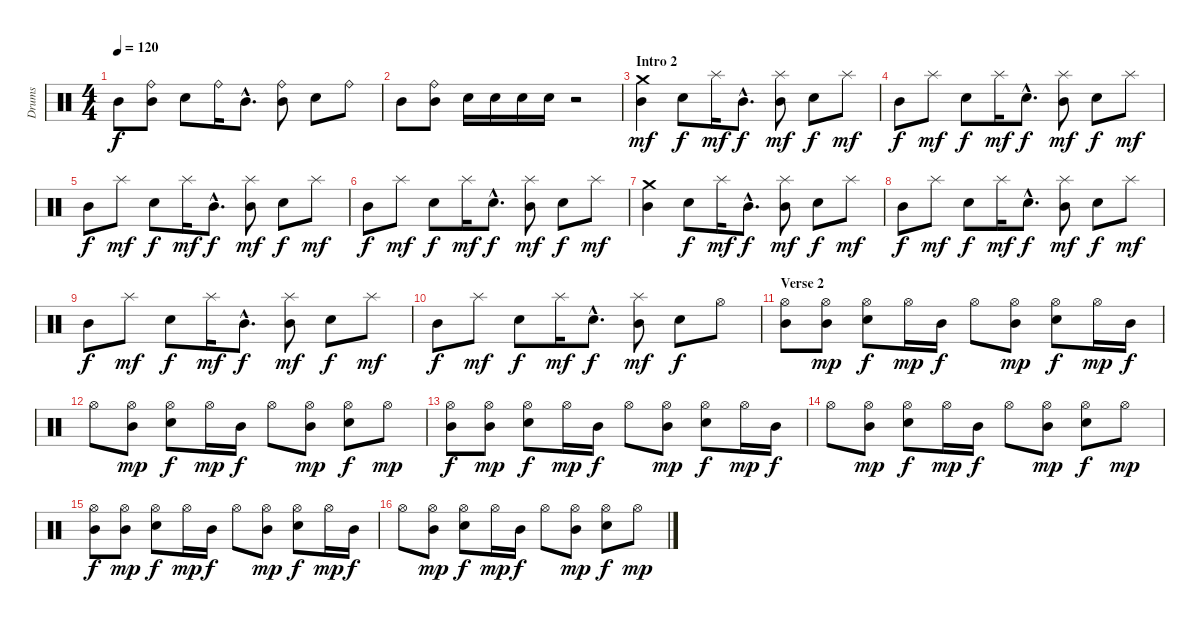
\track ("Drums" "Drums") {instrument percussion}
\staff {score}
\articulation defaults
\ts (4 4)
\tempo 120
\clef neutral
\ks c "Mid Tom (hit)".8{dy f}
("Ride (bell)" "Mid Tom (hit)").8 "Electric Snare (hit)".8 "Ride (bell)".16 "Mid Tom (hit)"{hac}.8{d} ("Ride (bell)" "Mid Tom (hit)").8 "Electric Snare (hit)".8 "Ride (bell)".8 |
"Mid Tom (hit)".8 ("Ride (bell)" "Mid Tom (hit)").8 "Electric Snare (hit)".16 "Electric Snare (hit)".16 "Electric Snare (hit)".16 "Electric Snare (hit)".16 r.2 |
\section ("" "Intro 2")
("Crash medium (hit)" "Mid Tom (hit)").4{dy mf} "Electric Snare (hit)".8{dy f} "Splash (hit)".16{dy mf} "Mid Tom (hit)"{hac}.8{d dy f} ("Splash (hit)" "Mid Tom (hit)").8{dy mf} "Electric Snare (hit)".8{dy f} "Splash (hit)".8{dy mf} |
"Mid Tom (hit)".8{dy f} "Splash (hit)".8{dy mf} "Electric Snare (hit)".8{dy f} "Splash (hit)".16{dy mf} "Electric Snare (hit)"{hac}.8{d dy f} ("Splash (hit)" "Mid Tom (hit)").8{dy mf} "Electric Snare (hit)".8{dy f} "Splash (hit)".8{dy mf} |
"Mid Tom (hit)".8{dy f} "Splash (hit)".8{dy mf} "Electric Snare (hit)".8{dy f} "Splash (hit)".16{dy mf} "Mid Tom (hit)"{hac}.8{d dy f} ("Splash (hit)" "Mid Tom (hit)").8{dy mf} "Electric Snare (hit)".8{dy f} "Splash (hit)".8{dy mf} |
"Mid Tom (hit)".8{dy f} "Splash (hit)".8{dy mf} "Electric Snare (hit)".8{dy f} "Splash (hit)".16{dy mf} "Electric Snare (hit)"{hac}.8{d dy f} ("Splash (hit)" "Mid Tom (hit)").8{dy mf} "Electric Snare (hit)".8{dy f} "Splash (hit)".8{dy mf} |
("Crash medium (hit)" "Mid Tom (hit)").4 "Electric Snare (hit)".8{dy f} "Splash (hit)".16{dy mf} "Mid Tom (hit)"{hac}.8{d dy f} ("Splash (hit)" "Mid Tom (hit)").8{dy mf} "Electric Snare (hit)".8{dy f} "Splash (hit)".8{dy mf} |
"Mid Tom (hit)".8{dy f} "Splash (hit)".8{dy mf} "Electric Snare (hit)".8{dy f} "Splash (hit)".16{dy mf} "Electric Snare (hit)"{hac}.8{d dy f} ("Splash (hit)" "Mid Tom (hit)").8{dy mf} "Electric Snare (hit)".8{dy f} "Splash (hit)".8{dy mf} |
"Mid Tom (hit)".8{dy f} "Splash (hit)".8{dy mf} "Electric Snare (hit)".8{dy f} "Splash (hit)".16{dy mf} "Mid Tom (hit)"{hac}.8{d dy f} ("Splash (hit)" "Mid Tom (hit)").8{dy mf} "Electric Snare (hit)".8{dy f} "Splash (hit)".8{dy mf} |
"Mid Tom (hit)".8{dy f} "Splash (hit)".8{dy mf} "Electric Snare (hit)".8{dy f} "Splash (hit)".16{dy mf} "Electric Snare (hit)"{hac}.8{d dy f} ("Splash (hit)" "Mid Tom (hit)").8{dy mf} "Electric Snare (hit)".8{dy f} "Hi-Hat (open)".8 |
\section ("" "Verse 2")
("Hi-Hat (open)" "Mid Tom (hit)").8 ("Hi-Hat (open)" "Mid Tom (hit)").8{dy mp} ("Hi-Hat (open)" "Electric Snare (hit)").8{dy f} "Hi-Hat (open)".16{dy mp} "Mid Tom (hit)".16{dy f} "Hi-Hat (open)".8 ("Hi-Hat (open)" "Mid Tom (hit)").8{dy mp} ("Hi-Hat (open)" "Electric Snare (hit)").8{dy f} "Hi-Hat (open)".16{dy mp} "Mid Tom (hit)".16{dy f} |
"Hi-Hat (open)".8 ("Hi-Hat (open)" "Mid Tom (hit)").8{dy mp} ("Hi-Hat (open)" "Electric Snare (hit)").8{dy f} "Hi-Hat (open)".16{dy mp} "Mid Tom (hit)".16{dy f} "Hi-Hat (open)".8 ("Hi-Hat (open)" "Mid Tom (hit)").8{dy mp} ("Hi-Hat (open)" "Electric Snare (hit)").8{dy f} "Hi-Hat (open)".8{dy mp} |
("Hi-Hat (open)" "Mid Tom (hit)").8{dy f} ("Hi-Hat (open)" "Mid Tom (hit)").8{dy mp} ("Hi-Hat (open)" "Electric Snare (hit)").8{dy f} "Hi-Hat (open)".16{dy mp} "Mid Tom (hit)".16{dy f} "Hi-Hat (open)".8 ("Hi-Hat (open)" "Mid Tom (hit)").8{dy mp} ("Hi-Hat (open)" "Electric Snare (hit)").8{dy f} "Hi-Hat (open)".16{dy mp} "Mid Tom (hit)".16{dy f} |
"Hi-Hat (open)".8 ("Hi-Hat (open)" "Mid Tom (hit)").8{dy mp} ("Hi-Hat (open)" "Electric Snare (hit)").8{dy f} "Hi-Hat (open)".16{dy mp} "Mid Tom (hit)".16{dy f} "Hi-Hat (open)".8 ("Hi-Hat (open)" "Mid Tom (hit)").8{dy mp} ("Hi-Hat (open)" "Electric Snare (hit)").8{dy f} "Hi-Hat (open)".8{dy mp} |
("Hi-Hat (open)" "Mid Tom (hit)").8{dy f} ("Hi-Hat (open)" "Mid Tom (hit)").8{dy mp} ("Hi-Hat (open)" "Electric Snare (hit)").8{dy f} "Hi-Hat (open)".16{dy mp} "Mid Tom (hit)".16{dy f} "Hi-Hat (open)".8 ("Hi-Hat (open)" "Mid Tom (hit)").8{dy mp} ("Hi-Hat (open)" "Electric Snare (hit)").8{dy f} "Hi-Hat (open)".16{dy mp} "Mid Tom (hit)".16{dy f} |
"Hi-Hat (open)".8 ("Hi-Hat (open)" "Mid Tom (hit)").8{dy mp} ("Hi-Hat (open)" "Electric Snare (hit)").8{dy f} "Hi-Hat (open)".16{dy mp} "Mid Tom (hit)".16{dy f} "Hi-Hat (open)".8 ("Hi-Hat (open)" "Mid Tom (hit)").8{dy mp} ("Hi-Hat (open)" "Electric Snare (hit)").8{dy f} "Hi-Hat (open)".8{dy mp}
